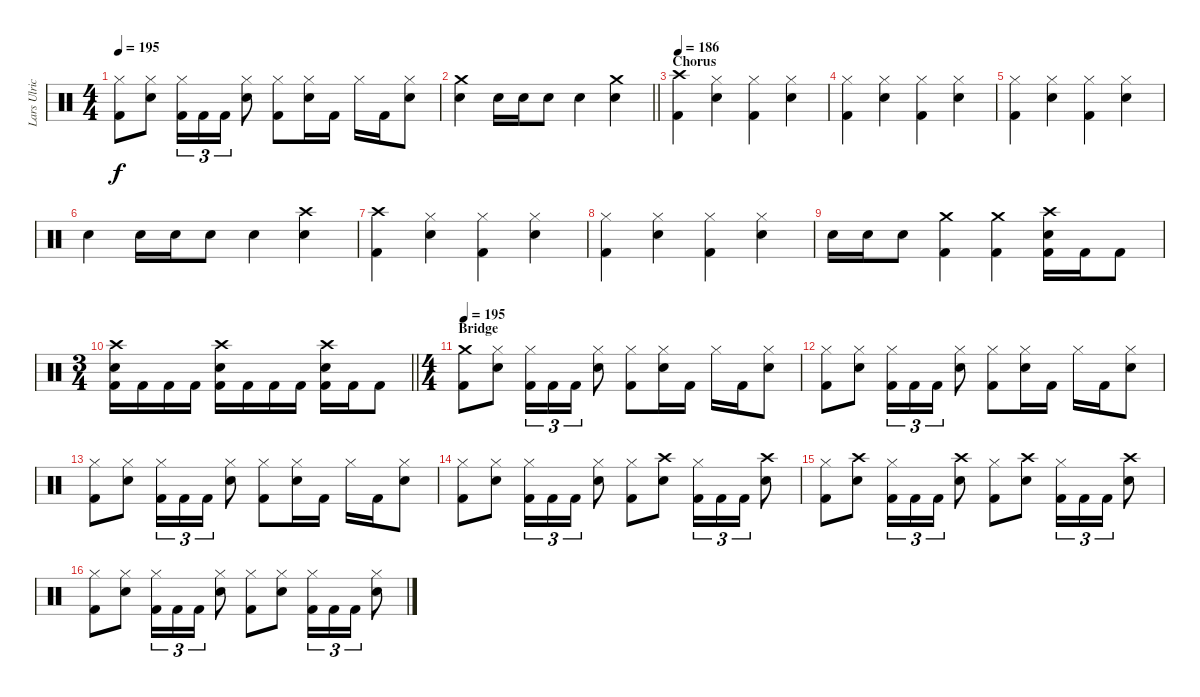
\track ("Lars Ulrich" "Lars Ulric") {instrument percussion}
\staff {score}
\articulation defaults
\ts (4 4)
\tempo 195
\clef neutral
\ks c
("Hi-Hat (closed)" "Kick (hit) 2").8{dy f} ("Hi-Hat (closed)" "Electric Snare (hit)").8 ("Hi-Hat (closed)" "Kick (hit) 2").16{tu (3 2)} "Kick (hit) 2".16{tu (3 2)} "Kick (hit) 2".16{tu (3 2)} ("Hi-Hat (closed)" "Electric Snare (hit)").8 ("Hi-Hat (closed)" "Kick (hit) 2").8 ("Hi-Hat (closed)" "Electric Snare (hit)").16 "Kick (hit) 2".16 "Hi-Hat (closed)".16 "Kick (hit) 2".16 ("Hi-Hat (closed)" "Electric Snare (hit)").8 |
\barLineRight lightlight
("Crash medium (hit)" "Electric Snare (hit)").4 "Electric Snare (hit)".16 "Electric Snare (hit)".16 "Electric Snare (hit)".8 "Electric Snare (hit)".4 ("Crash medium (hit)" "Electric Snare (hit)").4 |
\section ("" "Chorus")
\tempo 186
("Crash high (hit)" "Kick (hit) 2").4 ("Hi-Hat (closed)" "Electric Snare (hit)").4 ("Hi-Hat (closed)" "Kick (hit) 2").4 ("Hi-Hat (closed)" "Electric Snare (hit)").4 |
("Hi-Hat (closed)" "Kick (hit) 2").4 ("Hi-Hat (closed)" "Electric Snare (hit)").4 ("Hi-Hat (closed)" "Kick (hit) 2").4 ("Hi-Hat (closed)" "Electric Snare (hit)").4 |
("Hi-Hat (closed)" "Kick (hit) 2").4 ("Hi-Hat (closed)" "Electric Snare (hit)").4 ("Hi-Hat (closed)" "Kick (hit) 2").4 ("Hi-Hat (closed)" "Electric Snare (hit)").4 |
"Electric Snare (hit)".4 "Electric Snare (hit)".16 "Electric Snare (hit)".16 "Electric Snare (hit)".8 "Electric Snare (hit)".4 ("Crash high (hit)" "Electric Snare (hit)").4 |
("Crash high (hit)" "Kick (hit) 2").4 ("Hi-Hat (closed)" "Electric Snare (hit)").4 ("Hi-Hat (closed)" "Kick (hit) 2").4 ("Hi-Hat (closed)" "Electric Snare (hit)").4 |
("Hi-Hat (closed)" "Kick (hit) 2").4 ("Hi-Hat (closed)" "Electric Snare (hit)").4 ("Hi-Hat (closed)" "Kick (hit) 2").4 ("Hi-Hat (closed)" "Electric Snare (hit)").4 |
"Electric Snare (hit)".16 "Electric Snare (hit)".16 "Electric Snare (hit)".8 ("Crash medium (hit)" "Kick (hit) 2").4 ("Crash medium (hit)" "Kick (hit) 2").4 ("Crash high (hit)" "Electric Snare (hit)" "Kick (hit) 2").16 "Kick (hit) 2".16 "Kick (hit) 2".8 |
\ts (3 4)
\barLineRight lightlight
("Crash high (hit)" "Electric Snare (hit)" "Kick (hit) 2").16 "Kick (hit) 2".16 "Kick (hit) 2".16 "Kick (hit) 2".16 ("Crash high (hit)" "Electric Snare (hit)" "Kick (hit) 2").16 "Kick (hit) 2".16 "Kick (hit) 2".16 "Kick (hit) 2".16 ("Crash high (hit)" "Electric Snare (hit)" "Kick (hit) 2").16 "Kick (hit) 2".16 "Kick (hit) 2".8 |
\ts (4 4)
\section ("" "Bridge")
\tempo 195
("Crash medium (hit)" "Kick (hit) 2").8 ("Hi-Hat (closed)" "Electric Snare (hit)").8 ("Hi-Hat (closed)" "Kick (hit) 2").16{tu (3 2)} "Kick (hit) 2".16{tu (3 2)} "Kick (hit) 2".16{tu (3 2)} ("Hi-Hat (closed)" "Electric Snare (hit)").8 ("Hi-Hat (closed)" "Kick (hit) 2").8 ("Hi-Hat (closed)" "Electric Snare (hit)").16 "Kick (hit) 2".16 "Hi-Hat (closed)".16 "Kick (hit) 2".16 ("Hi-Hat (closed)" "Electric Snare (hit)").8 |
("Hi-Hat (closed)" "Kick (hit) 2").8 ("Hi-Hat (closed)" "Electric Snare (hit)").8 ("Hi-Hat (closed)" "Kick (hit) 2").16{tu (3 2)} "Kick (hit) 2".16{tu (3 2)} "Kick (hit) 2".16{tu (3 2)} ("Hi-Hat (closed)" "Electric Snare (hit)").8 ("Hi-Hat (closed)" "Kick (hit) 2").8 ("Hi-Hat (closed)" "Electric Snare (hit)").16 "Kick (hit) 2".16 "Hi-Hat (closed)".16 "Kick (hit) 2".16 ("Hi-Hat (closed)" "Electric Snare (hit)").8 |
("Hi-Hat (closed)" "Kick (hit) 2").8 ("Hi-Hat (closed)" "Electric Snare (hit)").8 ("Hi-Hat (closed)" "Kick (hit) 2").16{tu (3 2)} "Kick (hit) 2".16{tu (3 2)} "Kick (hit) 2".16{tu (3 2)} ("Hi-Hat (closed)" "Electric Snare (hit)").8 ("Hi-Hat (closed)" "Kick (hit) 2").8 ("Hi-Hat (closed)" "Electric Snare (hit)").16 "Kick (hit) 2".16 "Hi-Hat (closed)".16 "Kick (hit) 2".16 ("Hi-Hat (closed)" "Electric Snare (hit)").8 |
("Hi-Hat (closed)" "Kick (hit) 2").8 ("Hi-Hat (closed)" "Electric Snare (hit)").8 ("Hi-Hat (closed)" "Kick (hit) 2").16{tu (3 2)} "Kick (hit) 2".16{tu (3 2)} "Kick (hit) 2".16{tu (3 2)} ("Hi-Hat (closed)" "Electric Snare (hit)").8 ("Hi-Hat (closed)" "Kick (hit) 2").8 ("Crash high (hit)" "Electric Snare (hit)").8 ("Hi-Hat (closed)" "Kick (hit) 2").16{tu (3 2)} "Kick (hit) 2".16{tu (3 2)} "Kick (hit) 2".16{tu (3 2)} ("Crash high (hit)" "Electric Snare (hit)").8 |
("Hi-Hat (closed)" "Kick (hit) 2").8 ("Crash high (hit)" "Electric Snare (hit)").8 ("Hi-Hat (closed)" "Kick (hit) 2").16{tu (3 2)} "Kick (hit) 2".16{tu (3 2)} "Kick (hit) 2".16{tu (3 2)} ("Crash high (hit)" "Electric Snare (hit)").8 ("Hi-Hat (closed)" "Kick (hit) 2").8 ("Crash high (hit)" "Electric Snare (hit)").8 ("Hi-Hat (closed)" "Kick (hit) 2").16{tu (3 2)} "Kick (hit) 2".16{tu (3 2)} "Kick (hit) 2".16{tu (3 2)} ("Crash high (hit)" "Electric Snare (hit)").8 |
("Hi-Hat (closed)" "Kick (hit) 2").8 ("Hi-Hat (closed)" "Electric Snare (hit)").8 ("Hi-Hat (closed)" "Kick (hit) 2").16{tu (3 2)} "Kick (hit) 2".16{tu (3 2)} "Kick (hit) 2".16{tu (3 2)} ("Hi-Hat (closed)" "Electric Snare (hit)").8 ("Hi-Hat (closed)" "Kick (hit) 2").8 ("Hi-Hat (closed)" "Electric Snare (hit)").8 ("Hi-Hat (closed)" "Kick (hit) 2").16{tu (3 2)} "Kick (hit) 2".16{tu (3 2)} "Kick (hit) 2".16{tu (3 2)} ("Hi-Hat (closed)" "Electric Snare (hit)").8
